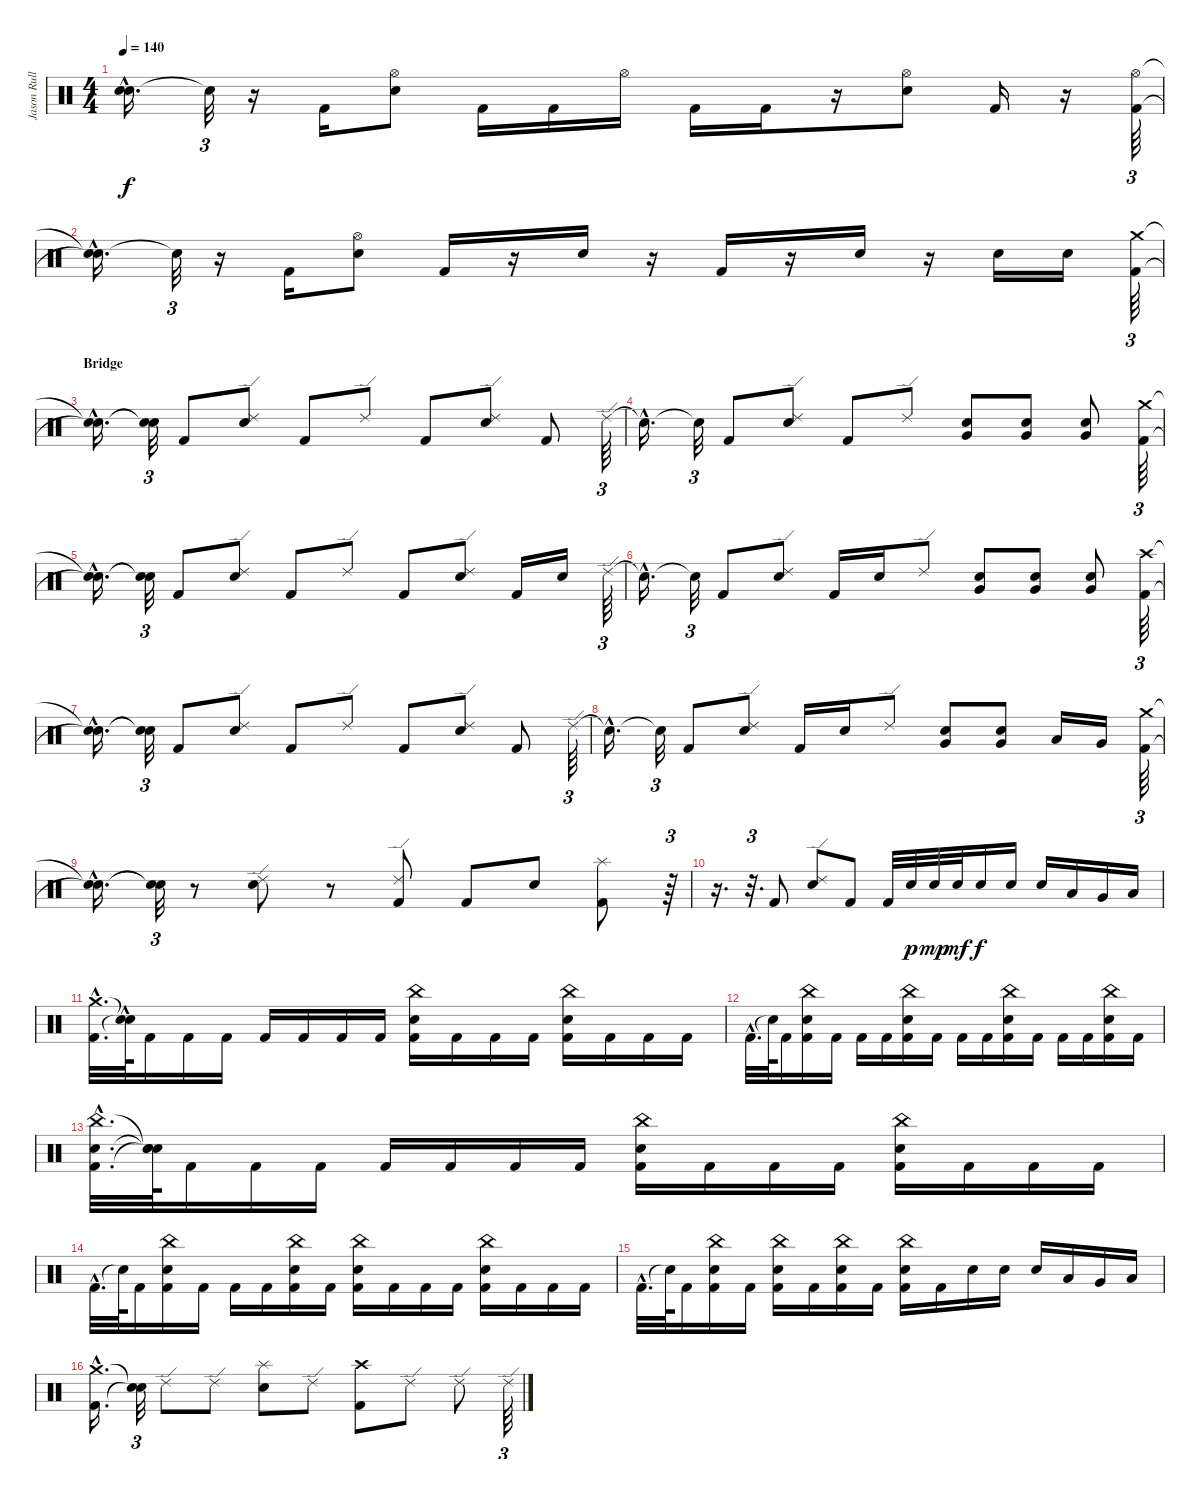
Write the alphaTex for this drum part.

\track ("Jason Rullo" "Jason Rull") {instrument percussion}
\staff {score}
\articulation defaults
\ts (4 4)
\tempo 140
\clef neutral
\ks c
("Snare (hit)"{hac t} "Snare (hit)"{hac t}).16{d dy f} "Snare (hit)"{t}.32{tu (3 2)} r.16 "Kick (hit) 2".16 ("Hi-Hat (open)" "Electric Snare (hit)").8 "Kick (hit) 2".16 "Kick (hit) 2".16 "Hi-Hat (open)".16 "Kick (hit) 2".16 "Kick (hit) 2".16 r.16 ("Hi-Hat (open)" "Electric Snare (hit)").8 "Kick (hit) 2".16 r.16 ("Hi-Hat (open)" "Kick (hit) 2").64{tu (3 2)} |
("Snare (hit)"{hac t} "Snare (hit)"{hac t}).16{d} "Snare (hit)"{t}.32{tu (3 2)} r.16 "Kick (hit) 2".16 ("Hi-Hat (open)" "Electric Snare (hit)").8 "Kick (hit) 2".16 r.16 "Electric Snare (hit)".16 r.16 "Kick (hit) 2".16 r.16 "Electric Snare (hit)".16 r.16 "Electric Snare (hit)".16 "Electric Snare (hit)".16 ("Kick (hit) 2" "Crash medium (hit)").64{tu (3 2)} |
\section ("" "Bridge")
("Snare (hit)"{hac t} "Snare (hit)"{hac t}).16{d} ("Snare (hit)"{t} "Snare (hit)"{t}).32{tu (3 2)} "Kick (hit) 2".8 ("Electric Snare (hit)" "Ride (edge) 2").8 "Kick (hit) 2".8 "Ride (edge) 2".8 "Kick (hit) 2".8 ("Electric Snare (hit)" "Ride (edge) 2").8 "Kick (hit) 2".8 "Ride (edge) 2".64{tu (3 2)} |
"Snare (hit)"{hac t}.16{d} "Snare (hit)"{t}.32{tu (3 2)} "Kick (hit) 2".8 ("Electric Snare (hit)" "Ride (edge) 2").8 "Kick (hit) 2".8 "Ride (edge) 2".8 ("Very Low Tom (hit)" "Electric Snare (hit)").8 ("Very Low Tom (hit)" "Electric Snare (hit)").8 ("Very Low Tom (hit)" "Electric Snare (hit)").8 ("Kick (hit) 2" "Crash medium (hit)").64{tu (3 2)} |
("Snare (hit)"{hac t} "Snare (hit)"{hac t}).16{d} ("Snare (hit)"{t} "Snare (hit)"{t}).32{tu (3 2)} "Kick (hit) 2".8 ("Electric Snare (hit)" "Ride (edge) 2").8 "Kick (hit) 2".8 "Ride (edge) 2".8 "Kick (hit) 2".8 ("Electric Snare (hit)" "Ride (edge) 2").8 "Kick (hit) 2".16 "Electric Snare (hit)".16 "Ride (edge) 2".64{tu (3 2)} |
"Snare (hit)"{hac t}.16{d} "Snare (hit)"{t}.32{tu (3 2)} "Kick (hit) 2".8 ("Electric Snare (hit)" "Ride (edge) 2").8 "Kick (hit) 2".16 "Electric Snare (hit)".16 "Ride (edge) 2".8 ("Very Low Tom (hit)" "Electric Snare (hit)").8 ("Very Low Tom (hit)" "Electric Snare (hit)").8 ("Very Low Tom (hit)" "Electric Snare (hit)").8 ("Crash high (hit)" "Kick (hit) 2").64{tu (3 2)} |
("Snare (hit)"{hac t} "Snare (hit)"{hac t}).16{d} ("Snare (hit)"{t} "Snare (hit)"{t}).32{tu (3 2)} "Kick (hit) 2".8 ("Electric Snare (hit)" "Ride (edge) 2").8 "Kick (hit) 2".8 "Ride (edge) 2".8 "Kick (hit) 2".8 ("Electric Snare (hit)" "Ride (edge) 2").8 "Kick (hit) 2".8 "Ride (edge) 2".64{tu (3 2)} |
"Snare (hit)"{hac t}.16{d} "Snare (hit)"{t}.32{tu (3 2)} "Kick (hit) 2".8 ("Electric Snare (hit)" "Ride (edge) 2").8 "Kick (hit) 2".16 "Electric Snare (hit)".16 "Ride (edge) 2".8 ("Very Low Tom (hit)" "Electric Snare (hit)").8 ("Very Low Tom (hit)" "Electric Snare (hit)").8 "Low Tom (hit)".16 "Very Low Tom (hit)".16 ("Kick (hit) 2" "Crash medium (hit)").64{tu (3 2)} |
("Snare (hit)"{hac t} "Snare (hit)"{hac t}).16{d} ("Snare (hit)"{t} "Snare (hit)"{t}).32{tu (3 2)} r.8 ("Electric Snare (hit)" "Ride (edge) 2").8 r.8 ("Kick (hit) 2" "Ride (edge) 2").8 "Kick (hit) 2".8 "Electric Snare (hit)".8 ("Splash (hit)" "Kick (hit) 2").8 r.64{tu (3 2)} |
r.16{d} r.32{d tu (3 2)} "Kick (hit) 2".8 ("Ride (edge) 2" "Electric Snare (hit)").8 "Kick (hit) 2".8 "Kick (hit) 2".32 "Electric Snare (hit)".32{dy p} "Electric Snare (hit)".32{dy mp} "Electric Snare (hit)".32{dy mf} "Electric Snare (hit)".16{dy f} "Electric Snare (hit)".16 "Electric Snare (hit)".16 "Low Tom (hit)".16 "Very Low Tom (hit)".16 "Low Floor Tom (hit)".16 |
("Crash medium (hit)"{hac} "Kick (hit) 2"{hac}).32{d} ("Snare (hit)"{hac t} "Snare (hit)"{t}).64 "Kick (hit) 2".16 "Kick (hit) 2".16 "Kick (hit) 2".16 "Kick (hit) 2".16 "Kick (hit) 2".16 "Kick (hit) 2".16 "Kick (hit) 2".16 ("China (hit)" "Electric Snare (hit)" "Kick (hit) 2").16 "Kick (hit) 2".16 "Kick (hit) 2".16 "Kick (hit) 2".16 ("China (hit)" "Electric Snare (hit)" "Kick (hit) 2").16 "Kick (hit) 2".16 "Kick (hit) 2".16 "Kick (hit) 2".16 |
"Kick (hit) 2"{hac}.32{d} "Snare (hit)"{t}.64 "Kick (hit) 2".16 ("China (hit)" "Electric Snare (hit)" "Kick (hit) 2").16 "Kick (hit) 2".16 "Kick (hit) 2".16 "Kick (hit) 2".16 ("China (hit)" "Electric Snare (hit)" "Kick (hit) 2").16 "Kick (hit) 2".16 "Kick (hit) 2".16 "Kick (hit) 2".16 ("China (hit)" "Electric Snare (hit)" "Kick (hit) 2").16 "Kick (hit) 2".16 "Kick (hit) 2".16 "Kick (hit) 2".16 ("China (hit)" "Electric Snare (hit)" "Kick (hit) 2").16 "Kick (hit) 2".16 |
("China (hit)"{hac} "Electric Snare (hit)"{hac} "Kick (hit) 2"{hac}).32{d} ("Snare (hit)"{t} "Snare (hit)"{t} "Snare (hit)"{t}).64 "Kick (hit) 2".16 "Kick (hit) 2".16 "Kick (hit) 2".16 "Kick (hit) 2".16 "Kick (hit) 2".16 "Kick (hit) 2".16 "Kick (hit) 2".16 ("China (hit)" "Electric Snare (hit)" "Kick (hit) 2").16 "Kick (hit) 2".16 "Kick (hit) 2".16 "Kick (hit) 2".16 ("China (hit)" "Electric Snare (hit)" "Kick (hit) 2").16 "Kick (hit) 2".16 "Kick (hit) 2".16 "Kick (hit) 2".16 |
"Kick (hit) 2"{hac}.32{d} "Snare (hit)"{t}.64 "Kick (hit) 2".16 ("China (hit)" "Electric Snare (hit)" "Kick (hit) 2").16 "Kick (hit) 2".16 "Kick (hit) 2".16 "Kick (hit) 2".16 ("China (hit)" "Electric Snare (hit)" "Kick (hit) 2").16 "Kick (hit) 2".16 ("China (hit)" "Electric Snare (hit)" "Kick (hit) 2").16 "Kick (hit) 2".16 "Kick (hit) 2".16 "Kick (hit) 2".16 ("China (hit)" "Electric Snare (hit)" "Kick (hit) 2").16 "Kick (hit) 2".16 "Kick (hit) 2".16 "Kick (hit) 2".16 |
"Kick (hit) 2"{hac}.32{d} "Snare (hit)"{t}.64 "Kick (hit) 2".16 ("China (hit)" "Electric Snare (hit)" "Kick (hit) 2").16 "Kick (hit) 2".16 ("China (hit)" "Electric Snare (hit)" "Kick (hit) 2").16 "Kick (hit) 2".16 ("China (hit)" "Electric Snare (hit)" "Kick (hit) 2").16 "Kick (hit) 2".16 ("China (hit)" "Electric Snare (hit)" "Kick (hit) 2").16 "Kick (hit) 2".16 "Electric Snare (hit)".16 "Electric Snare (hit)".16 "Electric Snare (hit)".16 "Low Tom (hit)".16 "Very Low Tom (hit)".16 "Low Floor Tom (hit)".16 |
("Kick (hit) 2"{hac} "Crash medium (hit)"{hac}).16{d} ("Snare (hit)"{t} "Snare (hit)"{t}).32{tu (3 2)} "Ride (edge) 2".8 "Ride (edge) 2".8 ("Splash (hit)" "Electric Snare (hit)").8 "Ride (edge) 2".8 ("Crash high (hit)" "Kick (hit) 2").8 "Ride (edge) 2".8 "Ride (edge) 2".8 "Ride (edge) 2".64{tu (3 2)}
